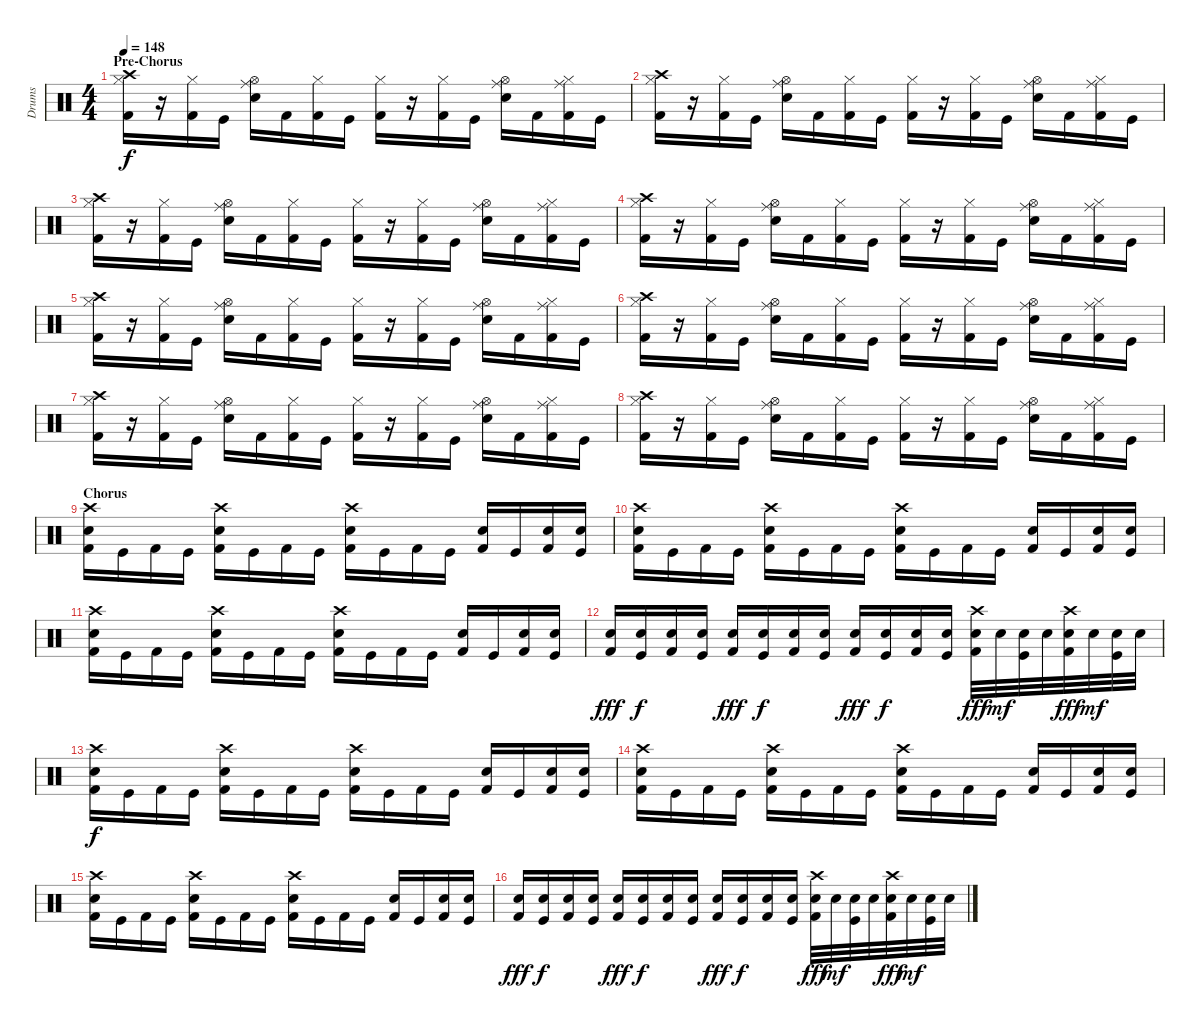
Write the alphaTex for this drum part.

\track ("Drums" "Drums") {instrument percussion}
\staff {score}
\articulation defaults
\ts (4 4)
\section ("" "Pre-Chorus")
\tempo 148
\clef neutral
\ks c
("Hi-Hat (closed)" "Crash high (hit)" "Kick (hit) 2").16{dy f} r.16 ("Hi-Hat (closed)" "Kick (hit) 2").16 "Kick (hit)".16 ("Hi-Hat (open)" "Ride (middle)" "Snare (hit) 2").16 "Kick (hit) 2".16 ("Hi-Hat (closed)" "Kick (hit) 2").16 "Kick (hit)".16 ("Hi-Hat (closed)" "Kick (hit) 2").16 r.16 ("Hi-Hat (closed)" "Kick (hit) 2").16 "Kick (hit)".16 ("Hi-Hat (open)" "Ride (middle)" "Snare (hit) 2").16 "Kick (hit) 2".16 ("Hi-Hat (closed)" "Ride (middle)" "Kick (hit) 2").16 "Kick (hit)".16 |
("Hi-Hat (closed)" "Crash high (hit)" "Kick (hit) 2").16 r.16 ("Hi-Hat (closed)" "Kick (hit) 2").16 "Kick (hit)".16 ("Hi-Hat (open)" "Ride (middle)" "Snare (hit) 2").16 "Kick (hit) 2".16 ("Hi-Hat (closed)" "Kick (hit) 2").16 "Kick (hit)".16 ("Hi-Hat (closed)" "Kick (hit) 2").16 r.16 ("Hi-Hat (closed)" "Kick (hit) 2").16 "Kick (hit)".16 ("Hi-Hat (open)" "Ride (middle)" "Snare (hit) 2").16 "Kick (hit) 2".16 ("Hi-Hat (closed)" "Ride (middle)" "Kick (hit) 2").16 "Kick (hit)".16 |
("Hi-Hat (closed)" "Crash high (hit)" "Kick (hit) 2").16 r.16 ("Hi-Hat (closed)" "Kick (hit) 2").16 "Kick (hit)".16 ("Hi-Hat (open)" "Ride (middle)" "Snare (hit) 2").16 "Kick (hit) 2".16 ("Hi-Hat (closed)" "Kick (hit) 2").16 "Kick (hit)".16 ("Hi-Hat (closed)" "Kick (hit) 2").16 r.16 ("Hi-Hat (closed)" "Kick (hit) 2").16 "Kick (hit)".16 ("Hi-Hat (open)" "Ride (middle)" "Snare (hit) 2").16 "Kick (hit) 2".16 ("Hi-Hat (closed)" "Ride (middle)" "Kick (hit) 2").16 "Kick (hit)".16 |
("Hi-Hat (closed)" "Crash high (hit)" "Kick (hit) 2").16 r.16 ("Hi-Hat (closed)" "Kick (hit) 2").16 "Kick (hit)".16 ("Hi-Hat (open)" "Ride (middle)" "Snare (hit) 2").16 "Kick (hit) 2".16 ("Hi-Hat (closed)" "Kick (hit) 2").16 "Kick (hit)".16 ("Hi-Hat (closed)" "Kick (hit) 2").16 r.16 ("Hi-Hat (closed)" "Kick (hit) 2").16 "Kick (hit)".16 ("Hi-Hat (open)" "Ride (middle)" "Snare (hit) 2").16 "Kick (hit) 2".16 ("Hi-Hat (closed)" "Ride (middle)" "Kick (hit) 2").16 "Kick (hit)".16 |
("Hi-Hat (closed)" "Crash high (hit)" "Kick (hit) 2").16 r.16 ("Hi-Hat (closed)" "Kick (hit) 2").16 "Kick (hit)".16 ("Hi-Hat (open)" "Ride (middle)" "Snare (hit) 2").16 "Kick (hit) 2".16 ("Hi-Hat (closed)" "Kick (hit) 2").16 "Kick (hit)".16 ("Hi-Hat (closed)" "Kick (hit) 2").16 r.16 ("Hi-Hat (closed)" "Kick (hit) 2").16 "Kick (hit)".16 ("Hi-Hat (open)" "Ride (middle)" "Snare (hit) 2").16 "Kick (hit) 2".16 ("Hi-Hat (closed)" "Ride (middle)" "Kick (hit) 2").16 "Kick (hit)".16 |
("Hi-Hat (closed)" "Crash high (hit)" "Kick (hit) 2").16 r.16 ("Hi-Hat (closed)" "Kick (hit) 2").16 "Kick (hit)".16 ("Hi-Hat (open)" "Ride (middle)" "Snare (hit) 2").16 "Kick (hit) 2".16 ("Hi-Hat (closed)" "Kick (hit) 2").16 "Kick (hit)".16 ("Hi-Hat (closed)" "Kick (hit) 2").16 r.16 ("Hi-Hat (closed)" "Kick (hit) 2").16 "Kick (hit)".16 ("Hi-Hat (open)" "Ride (middle)" "Snare (hit) 2").16 "Kick (hit) 2".16 ("Hi-Hat (closed)" "Ride (middle)" "Kick (hit) 2").16 "Kick (hit)".16 |
("Hi-Hat (closed)" "Crash high (hit)" "Kick (hit) 2").16 r.16 ("Hi-Hat (closed)" "Kick (hit) 2").16 "Kick (hit)".16 ("Hi-Hat (open)" "Ride (middle)" "Snare (hit) 2").16 "Kick (hit) 2".16 ("Hi-Hat (closed)" "Kick (hit) 2").16 "Kick (hit)".16 ("Hi-Hat (closed)" "Kick (hit) 2").16 r.16 ("Hi-Hat (closed)" "Kick (hit) 2").16 "Kick (hit)".16 ("Hi-Hat (open)" "Ride (middle)" "Snare (hit) 2").16 "Kick (hit) 2".16 ("Hi-Hat (closed)" "Ride (middle)" "Kick (hit) 2").16 "Kick (hit)".16 |
("Hi-Hat (closed)" "Crash high (hit)" "Kick (hit) 2").16 r.16 ("Hi-Hat (closed)" "Kick (hit) 2").16 "Kick (hit)".16 ("Hi-Hat (open)" "Ride (middle)" "Snare (hit) 2").16 "Kick (hit) 2".16 ("Hi-Hat (closed)" "Kick (hit) 2").16 "Kick (hit)".16 ("Hi-Hat (closed)" "Kick (hit) 2").16 r.16 ("Hi-Hat (closed)" "Kick (hit) 2").16 "Kick (hit)".16 ("Hi-Hat (open)" "Ride (middle)" "Snare (hit) 2").16 "Kick (hit) 2".16 ("Hi-Hat (closed)" "Ride (middle)" "Kick (hit) 2").16 "Kick (hit)".16 |
\section ("" "Chorus")
("Crash high (hit)" "Snare (hit) 2" "Kick (hit) 2").16 "Kick (hit)".16 "Kick (hit) 2".16 "Kick (hit)".16 ("Crash high (hit)" "Snare (hit) 2" "Kick (hit) 2").16 "Kick (hit)".16 "Kick (hit) 2".16 "Kick (hit)".16 ("Crash high (hit)" "Snare (hit) 2" "Kick (hit) 2").16 "Kick (hit)".16 "Kick (hit) 2".16 "Kick (hit)".16 ("Snare (hit) 2" "Kick (hit) 2").16 "Kick (hit)".16 ("Snare (hit) 2" "Kick (hit) 2").16 ("Snare (hit) 2" "Kick (hit)").16 |
("Crash high (hit)" "Snare (hit) 2" "Kick (hit) 2").16 "Kick (hit)".16 "Kick (hit) 2".16 "Kick (hit)".16 ("Crash high (hit)" "Snare (hit) 2" "Kick (hit) 2").16 "Kick (hit)".16 "Kick (hit) 2".16 "Kick (hit)".16 ("Crash high (hit)" "Snare (hit) 2" "Kick (hit) 2").16 "Kick (hit)".16 "Kick (hit) 2".16 "Kick (hit)".16 ("Snare (hit) 2" "Kick (hit) 2").16 "Kick (hit)".16 ("Snare (hit) 2" "Kick (hit) 2").16 ("Snare (hit) 2" "Kick (hit)").16 |
("Crash high (hit)" "Snare (hit) 2" "Kick (hit) 2").16 "Kick (hit)".16 "Kick (hit) 2".16 "Kick (hit)".16 ("Crash high (hit)" "Snare (hit) 2" "Kick (hit) 2").16 "Kick (hit)".16 "Kick (hit) 2".16 "Kick (hit)".16 ("Crash high (hit)" "Snare (hit) 2" "Kick (hit) 2").16 "Kick (hit)".16 "Kick (hit) 2".16 "Kick (hit)".16 ("Snare (hit) 2" "Kick (hit) 2").16 "Kick (hit)".16 ("Snare (hit) 2" "Kick (hit) 2").16 ("Snare (hit) 2" "Kick (hit)").16 |
("Snare (hit) 2" "Kick (hit) 2").16{dy fff} ("Snare (hit) 2" "Kick (hit)").16{dy f} ("Snare (hit) 2" "Kick (hit) 2").16 ("Snare (hit) 2" "Kick (hit)").16 ("Snare (hit) 2" "Kick (hit) 2").16{dy fff} ("Snare (hit) 2" "Kick (hit)").16{dy f} ("Snare (hit) 2" "Kick (hit) 2").16 ("Snare (hit) 2" "Kick (hit)").16 ("Snare (hit) 2" "Kick (hit) 2").16{dy fff} ("Snare (hit) 2" "Kick (hit)").16{dy f} ("Snare (hit) 2" "Kick (hit) 2").16 ("Snare (hit) 2" "Kick (hit)").16 ("Crash high (hit)" "Snare (hit) 2" "Kick (hit) 2").32{dy fff} "Snare (hit) 2".32{dy mf} ("Snare (hit) 2" "Kick (hit)").32 "Snare (hit) 2".32 ("Crash high (hit)" "Snare (hit) 2" "Kick (hit) 2").32{dy fff} "Snare (hit) 2".32{dy mf} ("Snare (hit) 2" "Kick (hit)").32 "Snare (hit) 2".32 |
("Crash high (hit)" "Snare (hit) 2" "Kick (hit) 2").16{dy f} "Kick (hit)".16 "Kick (hit) 2".16 "Kick (hit)".16 ("Crash high (hit)" "Snare (hit) 2" "Kick (hit) 2").16 "Kick (hit)".16 "Kick (hit) 2".16 "Kick (hit)".16 ("Crash high (hit)" "Snare (hit) 2" "Kick (hit) 2").16 "Kick (hit)".16 "Kick (hit) 2".16 "Kick (hit)".16 ("Snare (hit) 2" "Kick (hit) 2").16 "Kick (hit)".16 ("Snare (hit) 2" "Kick (hit) 2").16 ("Snare (hit) 2" "Kick (hit)").16 |
("Crash high (hit)" "Snare (hit) 2" "Kick (hit) 2").16 "Kick (hit)".16 "Kick (hit) 2".16 "Kick (hit)".16 ("Crash high (hit)" "Snare (hit) 2" "Kick (hit) 2").16 "Kick (hit)".16 "Kick (hit) 2".16 "Kick (hit)".16 ("Crash high (hit)" "Snare (hit) 2" "Kick (hit) 2").16 "Kick (hit)".16 "Kick (hit) 2".16 "Kick (hit)".16 ("Snare (hit) 2" "Kick (hit) 2").16 "Kick (hit)".16 ("Snare (hit) 2" "Kick (hit) 2").16 ("Snare (hit) 2" "Kick (hit)").16 |
("Crash high (hit)" "Snare (hit) 2" "Kick (hit) 2").16 "Kick (hit)".16 "Kick (hit) 2".16 "Kick (hit)".16 ("Crash high (hit)" "Snare (hit) 2" "Kick (hit) 2").16 "Kick (hit)".16 "Kick (hit) 2".16 "Kick (hit)".16 ("Crash high (hit)" "Snare (hit) 2" "Kick (hit) 2").16 "Kick (hit)".16 "Kick (hit) 2".16 "Kick (hit)".16 ("Snare (hit) 2" "Kick (hit) 2").16 "Kick (hit)".16 ("Snare (hit) 2" "Kick (hit) 2").16 ("Snare (hit) 2" "Kick (hit)").16 |
("Snare (hit) 2" "Kick (hit) 2").16{dy fff} ("Snare (hit) 2" "Kick (hit)").16{dy f} ("Snare (hit) 2" "Kick (hit) 2").16 ("Snare (hit) 2" "Kick (hit)").16 ("Snare (hit) 2" "Kick (hit) 2").16{dy fff} ("Snare (hit) 2" "Kick (hit)").16{dy f} ("Snare (hit) 2" "Kick (hit) 2").16 ("Snare (hit) 2" "Kick (hit)").16 ("Snare (hit) 2" "Kick (hit) 2").16{dy fff} ("Snare (hit) 2" "Kick (hit)").16{dy f} ("Snare (hit) 2" "Kick (hit) 2").16 ("Snare (hit) 2" "Kick (hit)").16 ("Crash high (hit)" "Snare (hit) 2" "Kick (hit) 2").32{dy fff} "Snare (hit) 2".32{dy mf} ("Snare (hit) 2" "Kick (hit)").32 "Snare (hit) 2".32 ("Crash high (hit)" "Snare (hit) 2" "Kick (hit) 2").32{dy fff} "Snare (hit) 2".32{dy mf} ("Snare (hit) 2" "Kick (hit)").32 "Snare (hit) 2".32
